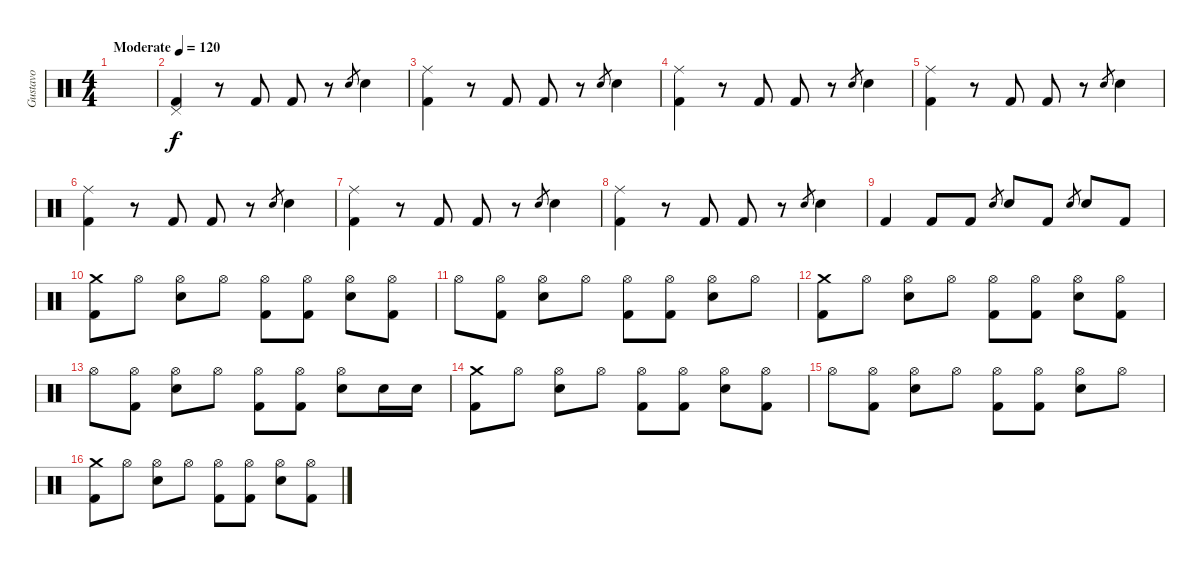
\track ("Gustavo" "Gustavo") {instrument percussion}
\staff {score}
\articulation defaults
\ts (4 4)
\tempo (120 "Moderate")
\clef neutral
\ks c
|
("Pedal Hi-Hat (hit)" "Kick (hit) 2").4 r.8 "Kick (hit) 2".8 "Kick (hit) 2".8 r.8 "Snare (hit) 2".8{gr} "Snare (hit) 2".4 |
("Ride (middle)" "Kick (hit) 2").4 r.8 "Kick (hit) 2".8 "Kick (hit) 2".8 r.8 "Snare (hit) 2".8{gr} "Snare (hit) 2".4 |
("Ride (middle)" "Kick (hit) 2").4 r.8 "Kick (hit) 2".8 "Kick (hit) 2".8 r.8 "Snare (hit) 2".8{gr} "Snare (hit) 2".4 |
("Ride (middle)" "Kick (hit) 2").4 r.8 "Kick (hit) 2".8 "Kick (hit) 2".8 r.8 "Snare (hit) 2".8{gr} "Snare (hit) 2".4 |
("Ride (middle)" "Kick (hit) 2").4 r.8 "Kick (hit) 2".8 "Kick (hit) 2".8 r.8 "Snare (hit) 2".8{gr} "Snare (hit) 2".4 |
("Ride (middle)" "Kick (hit) 2").4 r.8 "Kick (hit) 2".8 "Kick (hit) 2".8 r.8 "Snare (hit) 2".8{gr} "Snare (hit) 2".4 |
("Ride (middle)" "Kick (hit) 2").4 r.8 "Kick (hit) 2".8 "Kick (hit) 2".8 r.8 "Snare (hit) 2".8{gr} "Snare (hit) 2".4 |
"Kick (hit) 2".4 "Kick (hit) 2".8 "Kick (hit) 2".8 "Snare (hit) 2".8{gr} "Snare (hit) 2".8 "Kick (hit) 2".8 "Snare (hit) 2".8{gr} "Snare (hit) 2".8 "Kick (hit) 2".8 |
("Crash medium (hit)" "Kick (hit) 2").8 "Hi-Hat (open)".8 ("Hi-Hat (open)" "Snare (hit) 2").8 "Hi-Hat (open)".8 ("Hi-Hat (open)" "Kick (hit) 2").8 ("Hi-Hat (open)" "Kick (hit) 2").8 ("Hi-Hat (open)" "Snare (hit) 2").8 ("Hi-Hat (open)" "Kick (hit) 2").8 |
"Hi-Hat (open)".8 ("Hi-Hat (open)" "Kick (hit) 2").8 ("Hi-Hat (open)" "Snare (hit) 2").8 "Hi-Hat (open)".8 ("Hi-Hat (open)" "Kick (hit) 2").8 ("Hi-Hat (open)" "Kick (hit) 2").8 ("Hi-Hat (open)" "Snare (hit) 2").8 "Hi-Hat (open)".8 |
("Crash medium (hit)" "Kick (hit) 2").8 "Hi-Hat (open)".8 ("Hi-Hat (open)" "Snare (hit) 2").8 "Hi-Hat (open)".8 ("Hi-Hat (open)" "Kick (hit) 2").8 ("Hi-Hat (open)" "Kick (hit) 2").8 ("Hi-Hat (open)" "Snare (hit) 2").8 ("Hi-Hat (open)" "Kick (hit) 2").8 |
"Hi-Hat (open)".8 ("Hi-Hat (open)" "Kick (hit) 2").8 ("Hi-Hat (open)" "Snare (hit) 2").8 "Hi-Hat (open)".8 ("Hi-Hat (open)" "Kick (hit) 2").8 ("Hi-Hat (open)" "Kick (hit) 2").8 ("Hi-Hat (open)" "Snare (hit) 2").8 "Snare (hit) 2".16 "Snare (hit) 2".16 |
("Crash medium (hit)" "Kick (hit) 2").8 "Hi-Hat (open)".8 ("Hi-Hat (open)" "Snare (hit) 2").8 "Hi-Hat (open)".8 ("Hi-Hat (open)" "Kick (hit) 2").8 ("Hi-Hat (open)" "Kick (hit) 2").8 ("Hi-Hat (open)" "Snare (hit) 2").8 ("Hi-Hat (open)" "Kick (hit) 2").8 |
"Hi-Hat (open)".8 ("Hi-Hat (open)" "Kick (hit) 2").8 ("Hi-Hat (open)" "Snare (hit) 2").8 "Hi-Hat (open)".8 ("Hi-Hat (open)" "Kick (hit) 2").8 ("Hi-Hat (open)" "Kick (hit) 2").8 ("Hi-Hat (open)" "Snare (hit) 2").8 "Hi-Hat (open)".8 |
("Crash medium (hit)" "Kick (hit) 2").8 "Hi-Hat (open)".8 ("Hi-Hat (open)" "Snare (hit) 2").8 "Hi-Hat (open)".8 ("Hi-Hat (open)" "Kick (hit) 2").8 ("Hi-Hat (open)" "Kick (hit) 2").8 ("Hi-Hat (open)" "Snare (hit) 2").8 ("Hi-Hat (open)" "Kick (hit) 2").8
